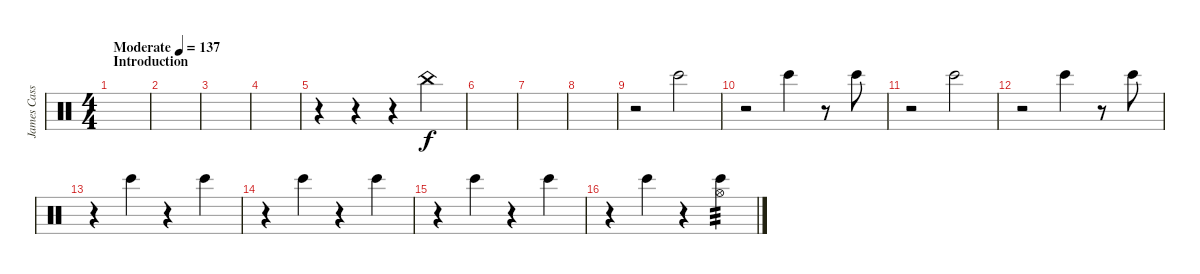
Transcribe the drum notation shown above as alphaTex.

\track ("James Cassels" "James Cass") {instrument percussion}
\staff {score}
\articulation defaults
\ts (4 4)
\section ("" "Introduction")
\tempo (137 "Moderate")
\clef neutral
\ks c
|
|
|
|
r.4 r.4 r.4 "China (hit)".4 |
|
|
|
r.2 "Bongo High (hit)".2 |
r.2 "Bongo High (hit)".4 r.8 "Bongo High (hit)".8 |
r.2 "Bongo High (hit)".2 |
r.2 "Bongo High (hit)".4 r.8 "Bongo High (hit)".8 |
r.4 "Bongo High (hit)".4 r.4 "Bongo High (hit)".4 |
r.4 "Bongo High (hit)".4 r.4 "Bongo High (hit)".4 |
r.4 "Bongo High (hit)".4 r.4 "Bongo High (hit)".4 |
r.4 "Bongo High (hit)".4 r.4 ("Hi-Hat (open)" "Bongo High (hit)").4{tp 3}
